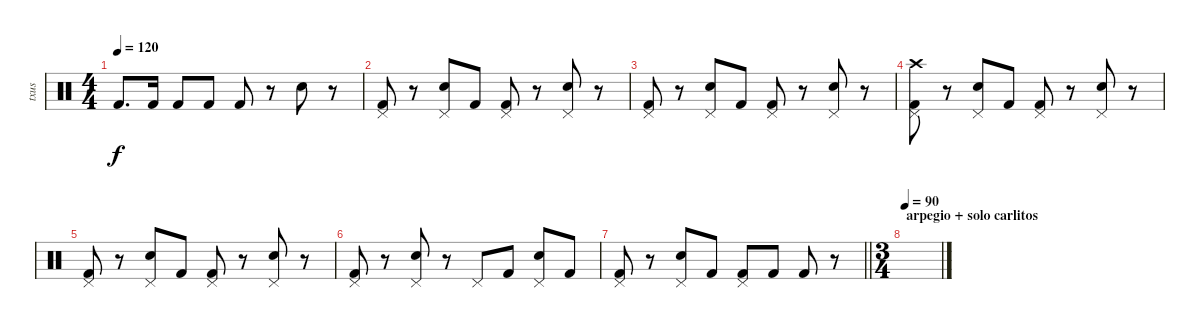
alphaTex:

\track ("txus" "txus") {instrument percussion}
\staff {score}
\articulation defaults
\ts (4 4)
\tempo 120
\clef neutral
\ks c "Kick (hit) 2".8{d dy f} "Kick (hit) 2".16 "Kick (hit) 2".8 "Kick (hit) 2".8 "Kick (hit) 2".8
r.8 "Electric Snare (hit)".8 r.8 |
("Kick (hit) 2" "Pedal Hi-Hat (hit)").8 r.8 ("Electric Snare (hit)" "Pedal Hi-Hat (hit)").8 "Kick (hit) 2".8 ("Kick (hit) 2" "Pedal Hi-Hat (hit)").8 r.8 ("Electric Snare (hit)" "Pedal Hi-Hat (hit)").8 r.8 |
("Kick (hit) 2" "Pedal Hi-Hat (hit)").8 r.8 ("Electric Snare (hit)" "Pedal Hi-Hat (hit)").8 "Kick (hit) 2".8 ("Kick (hit) 2" "Pedal Hi-Hat (hit)").8 r.8 ("Electric Snare (hit)" "Pedal Hi-Hat (hit)").8 r.8 |
("Kick (hit) 2" "Pedal Hi-Hat (hit)" "Crash high (hit)").8 r.8 ("Electric Snare (hit)" "Pedal Hi-Hat (hit)").8 "Kick (hit) 2".8 ("Kick (hit) 2" "Pedal Hi-Hat (hit)").8 r.8 ("Electric Snare (hit)" "Pedal Hi-Hat (hit)").8 r.8 |
("Kick (hit) 2" "Pedal Hi-Hat (hit)").8 r.8 ("Electric Snare (hit)" "Pedal Hi-Hat (hit)").8 "Kick (hit) 2".8 ("Kick (hit) 2" "Pedal Hi-Hat (hit)").8 r.8 ("Electric Snare (hit)" "Pedal Hi-Hat (hit)").8 r.8 |
("Kick (hit) 2" "Pedal Hi-Hat (hit)").8 r.8 ("Electric Snare (hit)" "Pedal Hi-Hat (hit)").8 r.8 "Pedal Hi-Hat (hit)".8 "Kick (hit) 2".8 ("Electric Snare (hit)" "Pedal Hi-Hat (hit)").8 "Kick (hit) 2".8 |
\barLineRight lightlight
("Kick (hit) 2" "Pedal Hi-Hat (hit)").8 r.8 ("Electric Snare (hit)" "Pedal Hi-Hat (hit)").8 "Kick (hit) 2".8 ("Kick (hit) 2" "Pedal Hi-Hat (hit)").8 "Kick (hit) 2".8 "Kick (hit) 2".8 r.8 |
\ts (3 4)
\section ("" "arpegio + solo carlitos")
\tempo 90
